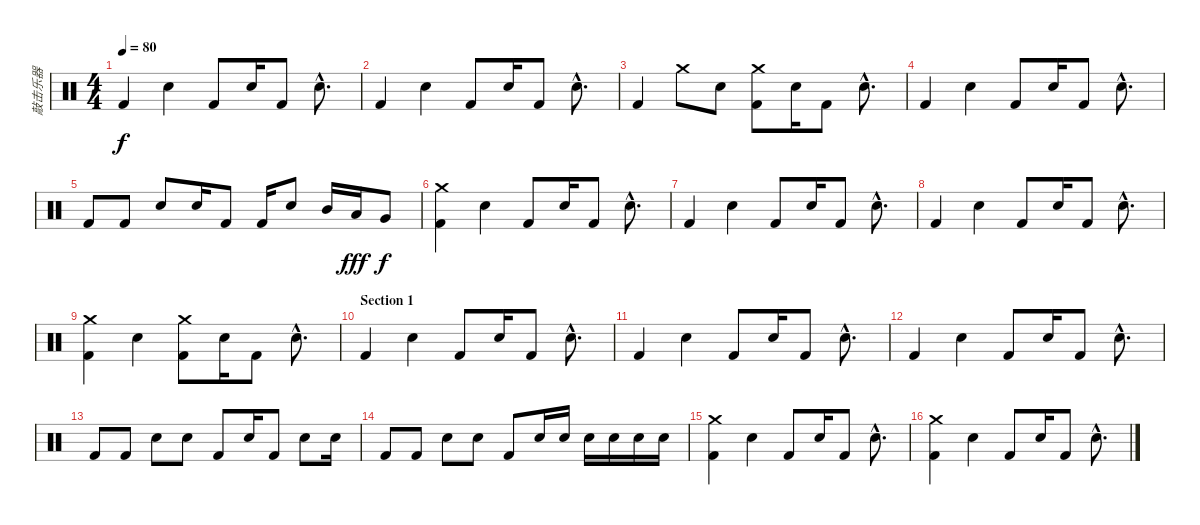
\track ("敲击乐器" "敲击乐器") {instrument percussion}
\staff {score}
\articulation defaults
\ts (4 4)
\tempo 80
\clef neutral
\ks c "Kick (hit) 2".4{dy f} "Electric Snare (hit)".4 "Kick (hit) 2".8 "Electric Snare (hit)".16 "Kick (hit) 2".8 "Electric Snare (hit)"{hac}.8{d}
|
"Kick (hit) 2".4 "Electric Snare (hit)".4 "Kick (hit) 2".8 "Electric Snare (hit)".16 "Kick (hit) 2".8 "Electric Snare (hit)"{hac}.8{d} |
"Kick (hit) 2".4 "Crash medium (hit)".8 "Electric Snare (hit)".8 ("Crash medium (hit)" "Kick (hit) 2").8 "Electric Snare (hit)".16 "Kick (hit) 2".8 "Electric Snare (hit)"{hac}.8{d} |
"Kick (hit) 2".4 "Electric Snare (hit)".4 "Kick (hit) 2".8 "Electric Snare (hit)".16 "Kick (hit) 2".8 "Electric Snare (hit)"{hac}.8{d} |
"Kick (hit) 2".8 "Kick (hit) 2".8 "Electric Snare (hit)".8 "Electric Snare (hit)".16 "Kick (hit) 2".8 "Kick (hit) 2".16 "Electric Snare (hit)".8 "Mid Tom (hit)".16 "Low Tom (hit)".16{dy fff} "Very Low Tom (hit)".8{dy f} |
("Crash medium (hit)" "Kick (hit) 2").4 "Electric Snare (hit)".4 "Kick (hit) 2".8 "Electric Snare (hit)".16 "Kick (hit) 2".8 "Electric Snare (hit)"{hac}.8{d} |
"Kick (hit) 2".4 "Electric Snare (hit)".4 "Kick (hit) 2".8 "Electric Snare (hit)".16 "Kick (hit) 2".8 "Electric Snare (hit)"{hac}.8{d} |
"Kick (hit) 2".4 "Electric Snare (hit)".4 "Kick (hit) 2".8 "Electric Snare (hit)".16 "Kick (hit) 2".8 "Electric Snare (hit)"{hac}.8{d} |
("Crash medium (hit)" "Kick (hit) 2").4 "Electric Snare (hit)".4 ("Crash medium (hit)" "Kick (hit) 2").8 "Electric Snare (hit)".16 "Kick (hit) 2".8 "Electric Snare (hit)"{hac}.8{d} |
\section ("" "Section 1")
"Kick (hit) 2".4 "Electric Snare (hit)".4 "Kick (hit) 2".8 "Electric Snare (hit)".16 "Kick (hit) 2".8 "Electric Snare (hit)"{hac}.8{d} |
"Kick (hit) 2".4 "Electric Snare (hit)".4 "Kick (hit) 2".8 "Electric Snare (hit)".16 "Kick (hit) 2".8 "Electric Snare (hit)"{hac}.8{d} |
"Kick (hit) 2".4 "Electric Snare (hit)".4 "Kick (hit) 2".8 "Electric Snare (hit)".16 "Kick (hit) 2".8 "Electric Snare (hit)"{hac}.8{d} |
"Kick (hit) 2".8 "Kick (hit) 2".8 "Electric Snare (hit)".8 "Electric Snare (hit)".8 "Kick (hit) 2".8 "Electric Snare (hit)".16 "Kick (hit) 2".8 "Electric Snare (hit)".8 "Electric Snare (hit)".16 |
"Kick (hit) 2".8 "Kick (hit) 2".8 "Electric Snare (hit)".8 "Electric Snare (hit)".8 "Kick (hit) 2".8 "Electric Snare (hit)".16 "Electric Snare (hit)".16 "Electric Snare (hit)".16 "Electric Snare (hit)".16 "Electric Snare (hit)".16 "Electric Snare (hit)".16 |
("Crash medium (hit)" "Kick (hit) 2").4 "Electric Snare (hit)".4 "Kick (hit) 2".8 "Electric Snare (hit)".16 "Kick (hit) 2".8 "Electric Snare (hit)"{hac}.8{d} |
("Crash medium (hit)" "Kick (hit) 2").4 "Electric Snare (hit)".4 "Kick (hit) 2".8 "Electric Snare (hit)".16 "Kick (hit) 2".8 "Electric Snare (hit)"{hac}.8{d}
